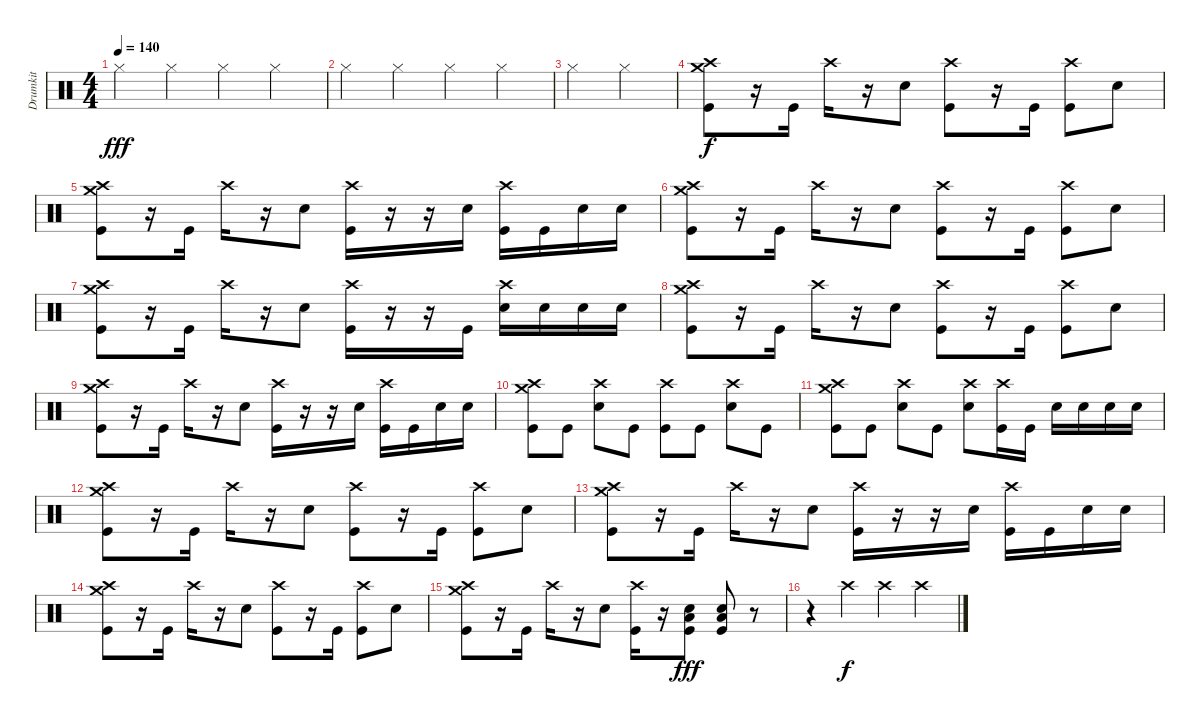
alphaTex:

\track ("Drumkit" "Drumkit") {instrument percussion}
\staff {score}
\articulation defaults
\ts (4 4)
\tempo 140
\clef neutral
\ks c "Hi-Hat (closed)".4{dy fff} "Hi-Hat (closed)".4 "Hi-Hat (closed)".4 "Hi-Hat (closed)".4
|
"Hi-Hat (closed)".4 "Hi-Hat (closed)".4 "Hi-Hat (closed)".4 "Hi-Hat (closed)".4 |
"Hi-Hat (closed)".4 "Hi-Hat (closed)".4 |
("Crash high (hit)" "Crash medium (hit)" "Kick (hit)").8{dy f} r.16 "Kick (hit)".16 "Crash high (hit)".16 r.16 "Snare (hit) 2".8 ("Kick (hit)" "Crash high (hit)").8 r.16 "Kick (hit)".16 ("Kick (hit)" "Crash high (hit)").8 "Snare (hit) 2".8 |
("Crash high (hit)" "Crash medium (hit)" "Kick (hit)").8 r.16 "Kick (hit)".16 "Crash high (hit)".16 r.16 "Snare (hit) 2".8 ("Kick (hit)" "Crash high (hit)").16 r.16 r.16 "Snare (hit) 2".16 ("Kick (hit)" "Crash high (hit)").16 "Kick (hit)".16 "Snare (hit) 2".16 "Snare (hit) 2".16 |
("Crash high (hit)" "Crash medium (hit)" "Kick (hit)").8 r.16 "Kick (hit)".16 "Crash high (hit)".16 r.16 "Snare (hit) 2".8 ("Kick (hit)" "Crash high (hit)").8 r.16 "Kick (hit)".16 ("Kick (hit)" "Crash high (hit)").8 "Snare (hit) 2".8 |
("Crash high (hit)" "Crash medium (hit)" "Kick (hit)").8 r.16 "Kick (hit)".16 "Crash high (hit)".16 r.16 "Snare (hit) 2".8 ("Kick (hit)" "Crash high (hit)").16 r.16 r.16 "Kick (hit)".16 ("Crash high (hit)" "Snare (hit) 2").16 "Snare (hit) 2".16 "Snare (hit) 2".16 "Snare (hit) 2".16 |
("Crash high (hit)" "Crash medium (hit)" "Kick (hit)").8 r.16 "Kick (hit)".16 "Crash high (hit)".16 r.16 "Snare (hit) 2".8 ("Kick (hit)" "Crash high (hit)").8 r.16 "Kick (hit)".16 ("Kick (hit)" "Crash high (hit)").8 "Snare (hit) 2".8 |
("Crash high (hit)" "Crash medium (hit)" "Kick (hit)").8 r.16 "Kick (hit)".16 "Crash high (hit)".16 r.16 "Snare (hit) 2".8 ("Kick (hit)" "Crash high (hit)").16 r.16 r.16 "Snare (hit) 2".16 ("Kick (hit)" "Crash high (hit)").16 "Kick (hit)".16 "Snare (hit) 2".16 "Snare (hit) 2".16 |
("Crash high (hit)" "Crash medium (hit)" "Kick (hit)").8 "Kick (hit)".8 ("Snare (hit) 2" "Crash high (hit)").8 "Kick (hit)".8 ("Kick (hit)" "Crash high (hit)").8 "Kick (hit)".8 ("Snare (hit) 2" "Crash high (hit)").8 "Kick (hit)".8 |
("Crash high (hit)" "Crash medium (hit)" "Kick (hit)").8 "Kick (hit)".8 ("Snare (hit) 2" "Crash high (hit)").8 "Kick (hit)".8 ("Crash high (hit)" "Snare (hit) 2").8 ("Crash high (hit)" "Kick (hit)").16 "Kick (hit)".16 "Snare (hit) 2".16 "Snare (hit) 2".16 "Snare (hit) 2".16 "Snare (hit) 2".16 |
("Crash high (hit)" "Crash medium (hit)" "Kick (hit)").8 r.16 "Kick (hit)".16 "Crash high (hit)".16 r.16 "Snare (hit) 2".8 ("Kick (hit)" "Crash high (hit)").8 r.16 "Kick (hit)".16 ("Kick (hit)" "Crash high (hit)").8 "Snare (hit) 2".8 |
("Crash high (hit)" "Crash medium (hit)" "Kick (hit)").8 r.16 "Kick (hit)".16 "Crash high (hit)".16 r.16 "Snare (hit) 2".8 ("Kick (hit)" "Crash high (hit)").16 r.16 r.16 "Snare (hit) 2".16 ("Kick (hit)" "Crash high (hit)").16 "Kick (hit)".16 "Snare (hit) 2".16 "Snare (hit) 2".16 |
("Crash high (hit)" "Crash medium (hit)" "Kick (hit)").8 r.16 "Kick (hit)".16 "Crash high (hit)".16 r.16 "Snare (hit) 2".8 ("Kick (hit)" "Crash high (hit)").8 r.16 "Kick (hit)".16 ("Kick (hit)" "Crash high (hit)").8 "Snare (hit) 2".8 |
("Crash high (hit)" "Crash medium (hit)" "Kick (hit)").8 r.16 "Kick (hit)".16 "Crash high (hit)".16 r.16 "Snare (hit) 2".8 ("Kick (hit)" "Crash high (hit)").16 r.16 ("Snare (hit) 2" "Low Tom (hit)" "Kick (hit)").8{dy fff} ("Kick (hit)" "Low Tom (hit)" "Snare (hit) 2").8 r.8 |
r.4 "Crash high (hit)".4{dy f} "Crash high (hit)".4 "Crash high (hit)".4
